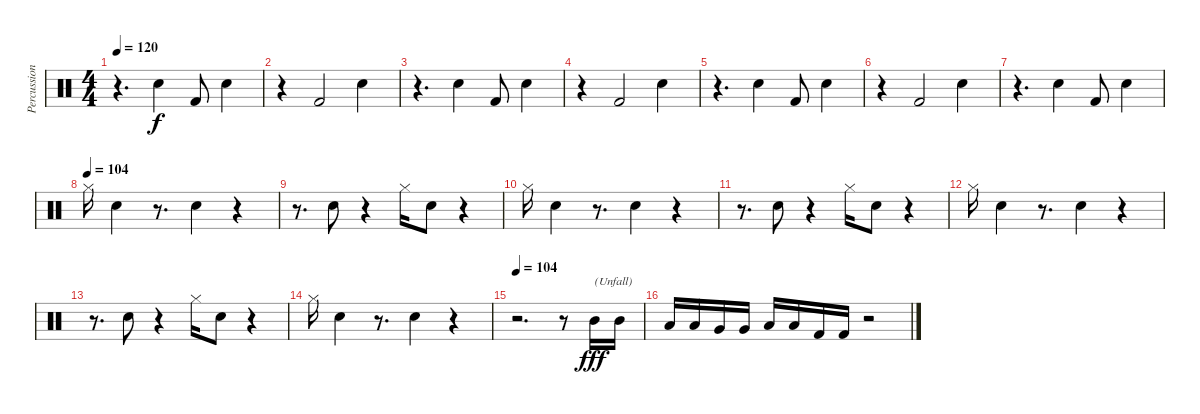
\track ("Percussion(By Bela B.)" "Percussion") {instrument percussion}
\staff {score}
\articulation defaults
\ts (4 4)
\tempo 120
\clef neutral
\ks c
r.4{d dy f} "Electric Snare (hit)".4 "Kick (hit) 2".8 "Snare (hit) 2".4 |
r.4 "Kick (hit) 2".2 "Snare (hit) 2".4 |
r.4{d} "Electric Snare (hit)".4 "Kick (hit) 2".8 "Snare (hit) 2".4 |
r.4 "Kick (hit) 2".2 "Snare (hit) 2".4 |
r.4{d} "Electric Snare (hit)".4 "Kick (hit) 2".8 "Snare (hit) 2".4 |
r.4 "Kick (hit) 2".2 "Snare (hit) 2".4 |
r.4{d} "Electric Snare (hit)".4 "Kick (hit) 2".8 "Snare (hit) 2".4 |
\tempo (104)
"Hi-Hat (closed)".16 "Electric Snare (hit)".4 r.8{d} "Electric Snare (hit)".4 r.4 |
r.8{d} "Electric Snare (hit)".8 r.4 "Hi-Hat (closed)".16 "Electric Snare (hit)".8 r.4 |
"Hi-Hat (closed)".16 "Electric Snare (hit)".4 r.8{d} "Electric Snare (hit)".4 r.4 |
r.8{d} "Electric Snare (hit)".8 r.4 "Hi-Hat (closed)".16 "Electric Snare (hit)".8 r.4 |
"Hi-Hat (closed)".16 "Electric Snare (hit)".4 r.8{d} "Electric Snare (hit)".4 r.4 |
r.8{d} "Electric Snare (hit)".8 r.4 "Hi-Hat (closed)".16 "Electric Snare (hit)".8 r.4 |
"Hi-Hat (closed)".16 "Electric Snare (hit)".4 r.8{d} "Electric Snare (hit)".4 r.4 |
\tempo 104
r.2{d} r.8 "Mid Tom (hit)".16{txt "(Unfall)" dy fff} "Mid Tom (hit)".16 |
"Low Tom (hit)".16 "Low Tom (hit)".16 "Very Low Tom (hit)".16 "Very Low Tom (hit)".16 "Low Floor Tom (hit)".16 "Low Floor Tom (hit)".16 "Kick (hit) 2".16 "Kick (hit) 2".16 r.2
